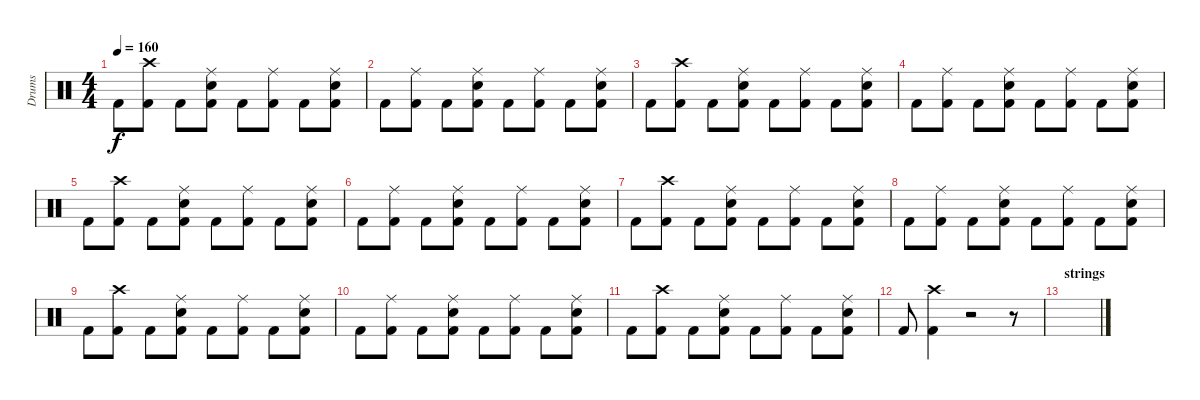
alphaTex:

\track ("Drums" "Drums") {instrument percussion}
\staff {score}
\articulation defaults
\ts (4 4)
\tempo 160
\clef neutral
\ks c "Kick (hit) 2".8{dy f}
("Kick (hit) 2" "Crash high (hit)").8 "Kick (hit) 2".8 ("Snare (hit) 2" "Kick (hit) 2" "Ride (middle)").8 "Kick (hit) 2".8 ("Kick (hit) 2" "Ride (middle)").8 "Kick (hit) 2".8 ("Snare (hit) 2" "Kick (hit) 2" "Ride (middle)").8 |
"Kick (hit) 2".8 ("Kick (hit) 2" "Ride (middle)").8 "Kick (hit) 2".8 ("Snare (hit) 2" "Kick (hit) 2" "Ride (middle)").8 "Kick (hit) 2".8 ("Kick (hit) 2" "Ride (middle)").8 "Kick (hit) 2".8 ("Snare (hit) 2" "Kick (hit) 2" "Ride (middle)").8 |
"Kick (hit) 2".8 ("Kick (hit) 2" "Crash high (hit)").8 "Kick (hit) 2".8 ("Snare (hit) 2" "Kick (hit) 2" "Ride (middle)").8 "Kick (hit) 2".8 ("Kick (hit) 2" "Ride (middle)").8 "Kick (hit) 2".8 ("Snare (hit) 2" "Kick (hit) 2" "Ride (middle)").8 |
"Kick (hit) 2".8 ("Kick (hit) 2" "Ride (middle)").8 "Kick (hit) 2".8 ("Snare (hit) 2" "Kick (hit) 2" "Ride (middle)").8 "Kick (hit) 2".8 ("Kick (hit) 2" "Ride (middle)").8 "Kick (hit) 2".8 ("Snare (hit) 2" "Kick (hit) 2" "Ride (middle)").8 |
"Kick (hit) 2".8 ("Kick (hit) 2" "Crash high (hit)").8 "Kick (hit) 2".8 ("Snare (hit) 2" "Kick (hit) 2" "Ride (middle)").8 "Kick (hit) 2".8 ("Kick (hit) 2" "Ride (middle)").8 "Kick (hit) 2".8 ("Snare (hit) 2" "Kick (hit) 2" "Ride (middle)").8 |
"Kick (hit) 2".8 ("Kick (hit) 2" "Ride (middle)").8 "Kick (hit) 2".8 ("Snare (hit) 2" "Kick (hit) 2" "Ride (middle)").8 "Kick (hit) 2".8 ("Kick (hit) 2" "Ride (middle)").8 "Kick (hit) 2".8 ("Snare (hit) 2" "Kick (hit) 2" "Ride (middle)").8 |
"Kick (hit) 2".8 ("Kick (hit) 2" "Crash high (hit)").8 "Kick (hit) 2".8 ("Snare (hit) 2" "Kick (hit) 2" "Ride (middle)").8 "Kick (hit) 2".8 ("Kick (hit) 2" "Ride (middle)").8 "Kick (hit) 2".8 ("Snare (hit) 2" "Kick (hit) 2" "Ride (middle)").8 |
"Kick (hit) 2".8 ("Kick (hit) 2" "Ride (middle)").8 "Kick (hit) 2".8 ("Snare (hit) 2" "Kick (hit) 2" "Ride (middle)").8 "Kick (hit) 2".8 ("Kick (hit) 2" "Ride (middle)").8 "Kick (hit) 2".8 ("Snare (hit) 2" "Kick (hit) 2" "Ride (middle)").8 |
"Kick (hit) 2".8 ("Kick (hit) 2" "Crash high (hit)").8 "Kick (hit) 2".8 ("Snare (hit) 2" "Kick (hit) 2" "Ride (middle)").8 "Kick (hit) 2".8 ("Kick (hit) 2" "Ride (middle)").8 "Kick (hit) 2".8 ("Snare (hit) 2" "Kick (hit) 2" "Ride (middle)").8 |
"Kick (hit) 2".8 ("Kick (hit) 2" "Ride (middle)").8 "Kick (hit) 2".8 ("Snare (hit) 2" "Kick (hit) 2" "Ride (middle)").8 "Kick (hit) 2".8 ("Kick (hit) 2" "Ride (middle)").8 "Kick (hit) 2".8 ("Snare (hit) 2" "Kick (hit) 2" "Ride (middle)").8 |
"Kick (hit) 2".8 ("Kick (hit) 2" "Crash high (hit)").8 "Kick (hit) 2".8 ("Snare (hit) 2" "Kick (hit) 2" "Ride (middle)").8 "Kick (hit) 2".8 ("Kick (hit) 2" "Ride (middle)").8 "Kick (hit) 2".8 ("Snare (hit) 2" "Kick (hit) 2" "Ride (middle)").8 |
"Kick (hit) 2".8 ("Kick (hit) 2" "Crash high (hit)").4 r.2 r.8 |
\section ("" "strings")
